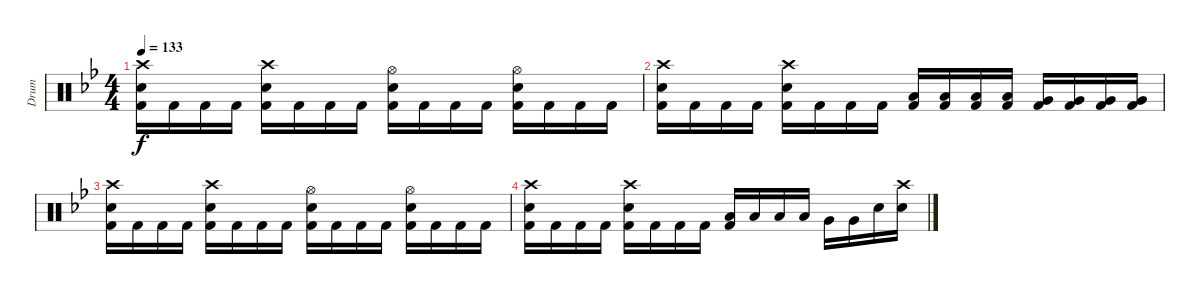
\track ("Drum" "Drum") {instrument percussion}
\staff {score}
\articulation defaults
\ts (4 4)
\tempo 133
\clef neutral
\ks bb
("Crash high (hit)" "Snare (hit) 2" "Kick (hit) 2").16{dy f} "Kick (hit) 2".16 "Kick (hit) 2".16 "Kick (hit) 2".16 ("Crash high (hit)" "Snare (hit) 2" "Kick (hit) 2").16 "Kick (hit) 2".16 "Kick (hit) 2".16 "Kick (hit) 2".16 ("Hi-Hat (open)" "Snare (hit) 2" "Kick (hit) 2").16 "Kick (hit) 2".16 "Kick (hit) 2".16 "Kick (hit) 2".16 ("Hi-Hat (open)" "Snare (hit) 2" "Kick (hit) 2").16 "Kick (hit) 2".16 "Kick (hit) 2".16 "Kick (hit) 2".16 |
("Crash high (hit)" "Snare (hit) 2" "Kick (hit) 2").16 "Kick (hit) 2".16 "Kick (hit) 2".16 "Kick (hit) 2".16 ("Crash high (hit)" "Snare (hit) 2" "Kick (hit) 2").16 "Kick (hit) 2".16 "Kick (hit) 2".16 "Kick (hit) 2".16 ("Low Tom (hit)" "Kick (hit) 2").16 ("Low Tom (hit)" "Kick (hit) 2").16 ("Low Tom (hit)" "Kick (hit) 2").16 ("Low Tom (hit)" "Kick (hit) 2").16 ("Very Low Tom (hit)" "Kick (hit) 2").16 ("Very Low Tom (hit)" "Kick (hit) 2").16 ("Very Low Tom (hit)" "Kick (hit) 2").16 ("Very Low Tom (hit)" "Kick (hit) 2").16 |
("Crash high (hit)" "Snare (hit) 2" "Kick (hit) 2").16 "Kick (hit) 2".16 "Kick (hit) 2".16 "Kick (hit) 2".16 ("Crash high (hit)" "Snare (hit) 2" "Kick (hit) 2").16 "Kick (hit) 2".16 "Kick (hit) 2".16 "Kick (hit) 2".16 ("Hi-Hat (open)" "Snare (hit) 2" "Kick (hit) 2").16 "Kick (hit) 2".16 "Kick (hit) 2".16 "Kick (hit) 2".16 ("Hi-Hat (open)" "Snare (hit) 2" "Kick (hit) 2").16 "Kick (hit) 2".16 "Kick (hit) 2".16 "Kick (hit) 2".16 |
("Crash high (hit)" "Snare (hit) 2" "Kick (hit) 2").16 "Kick (hit) 2".16 "Kick (hit) 2".16 "Kick (hit) 2".16 ("Crash high (hit)" "Snare (hit) 2" "Kick (hit) 2").16 "Kick (hit) 2".16 "Kick (hit) 2".16 "Kick (hit) 2".16 ("Low Tom (hit)" "Kick (hit) 2").16 "Low Tom (hit)".16 "Low Tom (hit)".16 "Low Tom (hit)".16 "Very Low Tom (hit)".16 "Very Low Tom (hit)".16 "Snare (hit) 2".16 ("Crash high (hit)" "Snare (hit) 2").16
